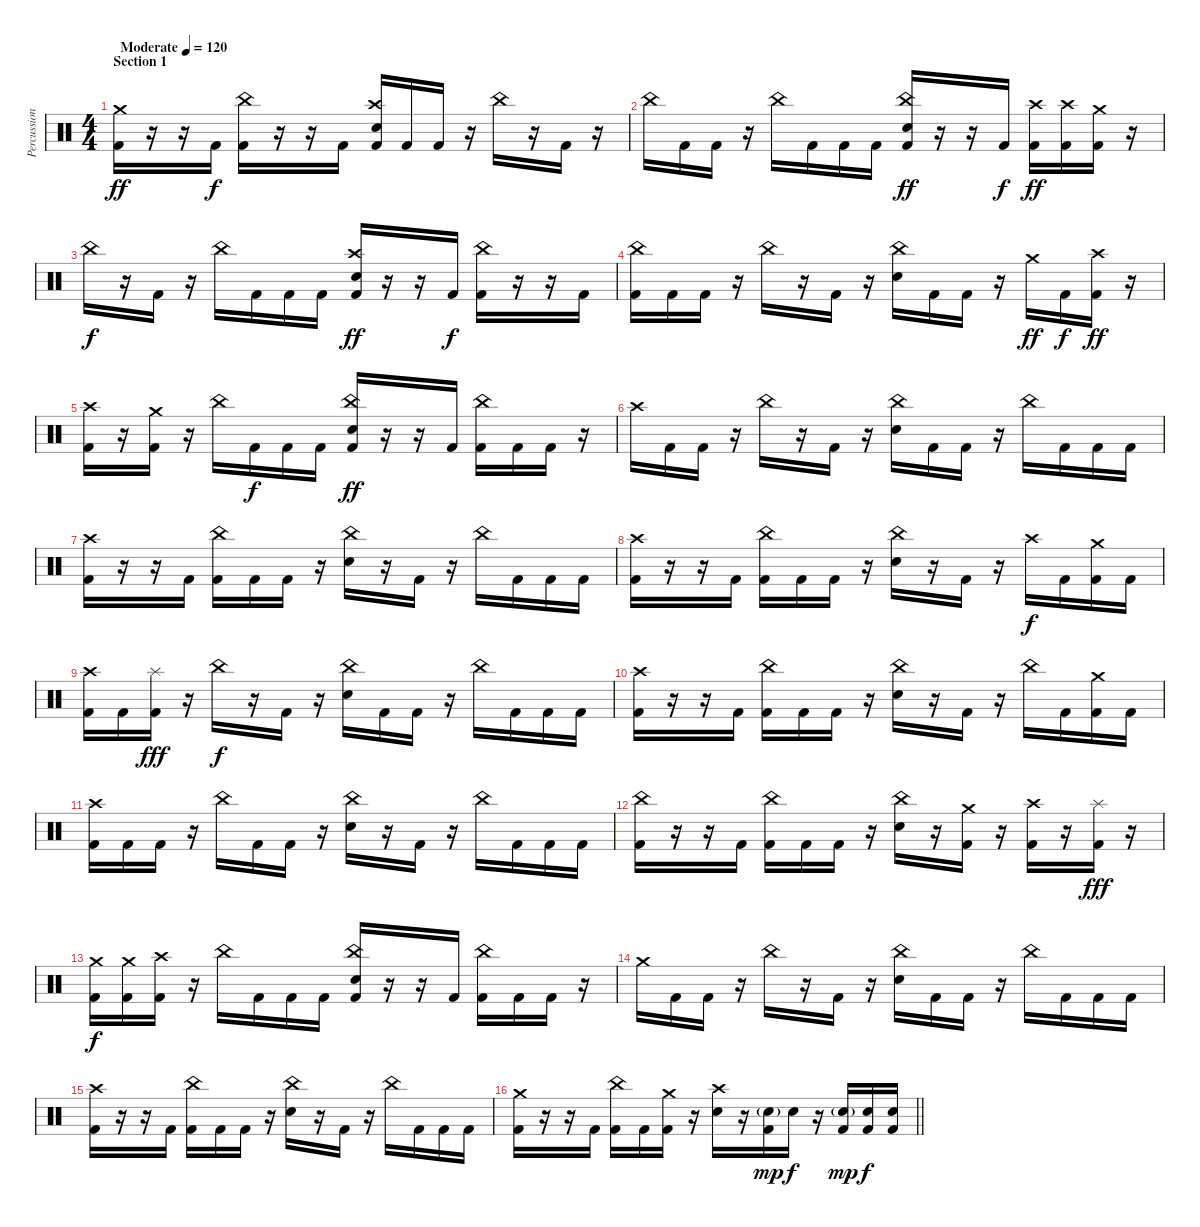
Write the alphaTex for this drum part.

\track ("Percussion" "Percussion") {instrument percussion}
\staff {score}
\articulation defaults
\ts (4 4)
\section ("" "Section 1")
\tempo (120 "Moderate")
\clef neutral
\ks c
("Crash medium (hit)" "Kick (hit) 2").16{dy ff} r.16 r.16 "Kick (hit) 2".16{dy f} ("China (hit)" "Kick (hit) 2").16 r.16 r.16 "Kick (hit) 2".16 ("Crash high (hit)" "Electric Snare (hit)" "Kick (hit) 2").16 "Kick (hit) 2".16 "Kick (hit) 2".16 r.16 "China (hit)".16 r.16 "Kick (hit) 2".16 r.16 |
"China (hit)".16 "Kick (hit) 2".16 "Kick (hit) 2".16 r.16 "China (hit)".16 "Kick (hit) 2".16 "Kick (hit) 2".16 "Kick (hit) 2".16 ("China (hit)" "Electric Snare (hit)" "Kick (hit) 2").16{dy ff} r.16 r.16 "Kick (hit) 2".16{dy f} ("Crash high (hit)" "Kick (hit) 2").16{dy ff} ("Crash high (hit)" "Kick (hit) 2").16 ("Crash medium (hit)" "Kick (hit) 2").16 r.16 |
"China (hit)".16{dy f} r.16 "Kick (hit) 2".16 r.16 "China (hit)".16 "Kick (hit) 2".16 "Kick (hit) 2".16 "Kick (hit) 2".16 ("Crash high (hit)" "Electric Snare (hit)" "Kick (hit) 2").16{dy ff} r.16 r.16 "Kick (hit) 2".16{dy f} ("China (hit)" "Kick (hit) 2").16 r.16 r.16 "Kick (hit) 2".16 |
("China (hit)" "Kick (hit) 2").16 "Kick (hit) 2".16 "Kick (hit) 2".16 r.16 "China (hit)".16 r.16 "Kick (hit) 2".16 r.16 ("China (hit)" "Electric Snare (hit)").16 "Kick (hit) 2".16 "Kick (hit) 2".16 r.16 "Crash medium (hit)".16{dy ff} "Kick (hit) 2".16{dy f} ("Crash high (hit)" "Kick (hit) 2").16{dy ff} r.16 |
("Crash high (hit)" "Kick (hit) 2").16 r.16 ("Crash medium (hit)" "Kick (hit) 2").16 r.16 "China (hit)".16 "Kick (hit) 2".16{dy f} "Kick (hit) 2".16 "Kick (hit) 2".16 ("China (hit)" "Electric Snare (hit)" "Kick (hit) 2").16{dy ff} r.16 r.16 "Kick (hit) 2".16 ("China (hit)" "Kick (hit) 2").16 "Kick (hit) 2".16 "Kick (hit) 2".16 r.16 |
"Crash high (hit)".16 "Kick (hit) 2".16 "Kick (hit) 2".16 r.16 "China (hit)".16 r.16 "Kick (hit) 2".16 r.16 ("China (hit)" "Electric Snare (hit)").16 "Kick (hit) 2".16 "Kick (hit) 2".16 r.16 "China (hit)".16 "Kick (hit) 2".16 "Kick (hit) 2".16 "Kick (hit) 2".16 |
("Crash high (hit)" "Kick (hit) 2").16 r.16 r.16 "Kick (hit) 2".16 ("China (hit)" "Kick (hit) 2").16 "Kick (hit) 2".16 "Kick (hit) 2".16 r.16 ("China (hit)" "Electric Snare (hit)").16 r.16 "Kick (hit) 2".16 r.16 "China (hit)".16 "Kick (hit) 2".16 "Kick (hit) 2".16 "Kick (hit) 2".16 |
("Crash high (hit)" "Kick (hit) 2").16 r.16 r.16 "Kick (hit) 2".16 ("China (hit)" "Kick (hit) 2").16 "Kick (hit) 2".16 "Kick (hit) 2".16 r.16 ("China (hit)" "Electric Snare (hit)").16 r.16 "Kick (hit) 2".16 r.16 "Crash high (hit)".16{dy f} "Kick (hit) 2".16 ("Crash medium (hit)" "Kick (hit) 2").16 "Kick (hit) 2".16 |
("Crash high (hit)" "Kick (hit) 2").16 "Kick (hit) 2".16 ("Splash (hit)" "Kick (hit) 2").16{dy fff} r.16 "China (hit)".16{dy f} r.16 "Kick (hit) 2".16 r.16 ("China (hit)" "Electric Snare (hit)").16 "Kick (hit) 2".16 "Kick (hit) 2".16 r.16 "China (hit)".16 "Kick (hit) 2".16 "Kick (hit) 2".16 "Kick (hit) 2".16 |
("Crash high (hit)" "Kick (hit) 2").16 r.16 r.16 "Kick (hit) 2".16 ("China (hit)" "Kick (hit) 2").16 "Kick (hit) 2".16 "Kick (hit) 2".16 r.16 ("China (hit)" "Electric Snare (hit)").16 r.16 "Kick (hit) 2".16 r.16 "China (hit)".16 "Kick (hit) 2".16 ("Crash medium (hit)" "Kick (hit) 2").16 "Kick (hit) 2".16 |
("Crash high (hit)" "Kick (hit) 2").16 "Kick (hit) 2".16 "Kick (hit) 2".16 r.16 "China (hit)".16 "Kick (hit) 2".16 "Kick (hit) 2".16 r.16 ("China (hit)" "Electric Snare (hit)").16 r.16 "Kick (hit) 2".16 r.16 "China (hit)".16 "Kick (hit) 2".16 "Kick (hit) 2".16 "Kick (hit) 2".16 |
("China (hit)" "Kick (hit) 2").16 r.16 r.16 "Kick (hit) 2".16 ("China (hit)" "Kick (hit) 2").16 "Kick (hit) 2".16 "Kick (hit) 2".16 r.16 ("China (hit)" "Electric Snare (hit)").16 r.16 ("Crash medium (hit)" "Kick (hit) 2").16 r.16 ("Crash high (hit)" "Kick (hit) 2").16 r.16 ("Splash (hit)" "Kick (hit) 2").16{dy fff} r.16 |
("Crash medium (hit)" "Kick (hit) 2").16{dy f} ("Crash medium (hit)" "Kick (hit) 2").16 ("Crash high (hit)" "Kick (hit) 2").16 r.16 "China (hit)".16 "Kick (hit) 2".16 "Kick (hit) 2".16 "Kick (hit) 2".16 ("China (hit)" "Electric Snare (hit)" "Kick (hit) 2").16 r.16 r.16 "Kick (hit) 2".16 ("China (hit)" "Kick (hit) 2").16 "Kick (hit) 2".16 "Kick (hit) 2".16 r.16 |
"Crash medium (hit)".16 "Kick (hit) 2".16 "Kick (hit) 2".16 r.16 "China (hit)".16 r.16 "Kick (hit) 2".16 r.16 ("China (hit)" "Electric Snare (hit)").16 "Kick (hit) 2".16 "Kick (hit) 2".16 r.16 "China (hit)".16 "Kick (hit) 2".16 "Kick (hit) 2".16 "Kick (hit) 2".16 |
("Crash high (hit)" "Kick (hit) 2").16 r.16 r.16 "Kick (hit) 2".16 ("China (hit)" "Kick (hit) 2").16 "Kick (hit) 2".16 "Kick (hit) 2".16 r.16 ("China (hit)" "Electric Snare (hit)").16 r.16 "Kick (hit) 2".16 r.16 "China (hit)".16 "Kick (hit) 2".16 "Kick (hit) 2".16 "Kick (hit) 2".16 |
\barLineRight lightlight
("Crash medium (hit)" "Kick (hit) 2").16 r.16 r.16 "Kick (hit) 2".16 ("China (hit)" "Kick (hit) 2").16 "Kick (hit) 2".16 ("Crash medium (hit)" "Kick (hit) 2").16 r.16 ("Crash high (hit)" "Electric Snare (hit)").16 r.16 ("Electric Snare (hit)"{g} "Kick (hit) 2").16{dy mp} "Electric Snare (hit)".16{dy f} r.16 ("Electric Snare (hit)"{g} "Kick (hit) 2").16{dy mp} ("Electric Snare (hit)" "Kick (hit) 2").16{dy f} ("Electric Snare (hit)" "Kick (hit) 2").16
